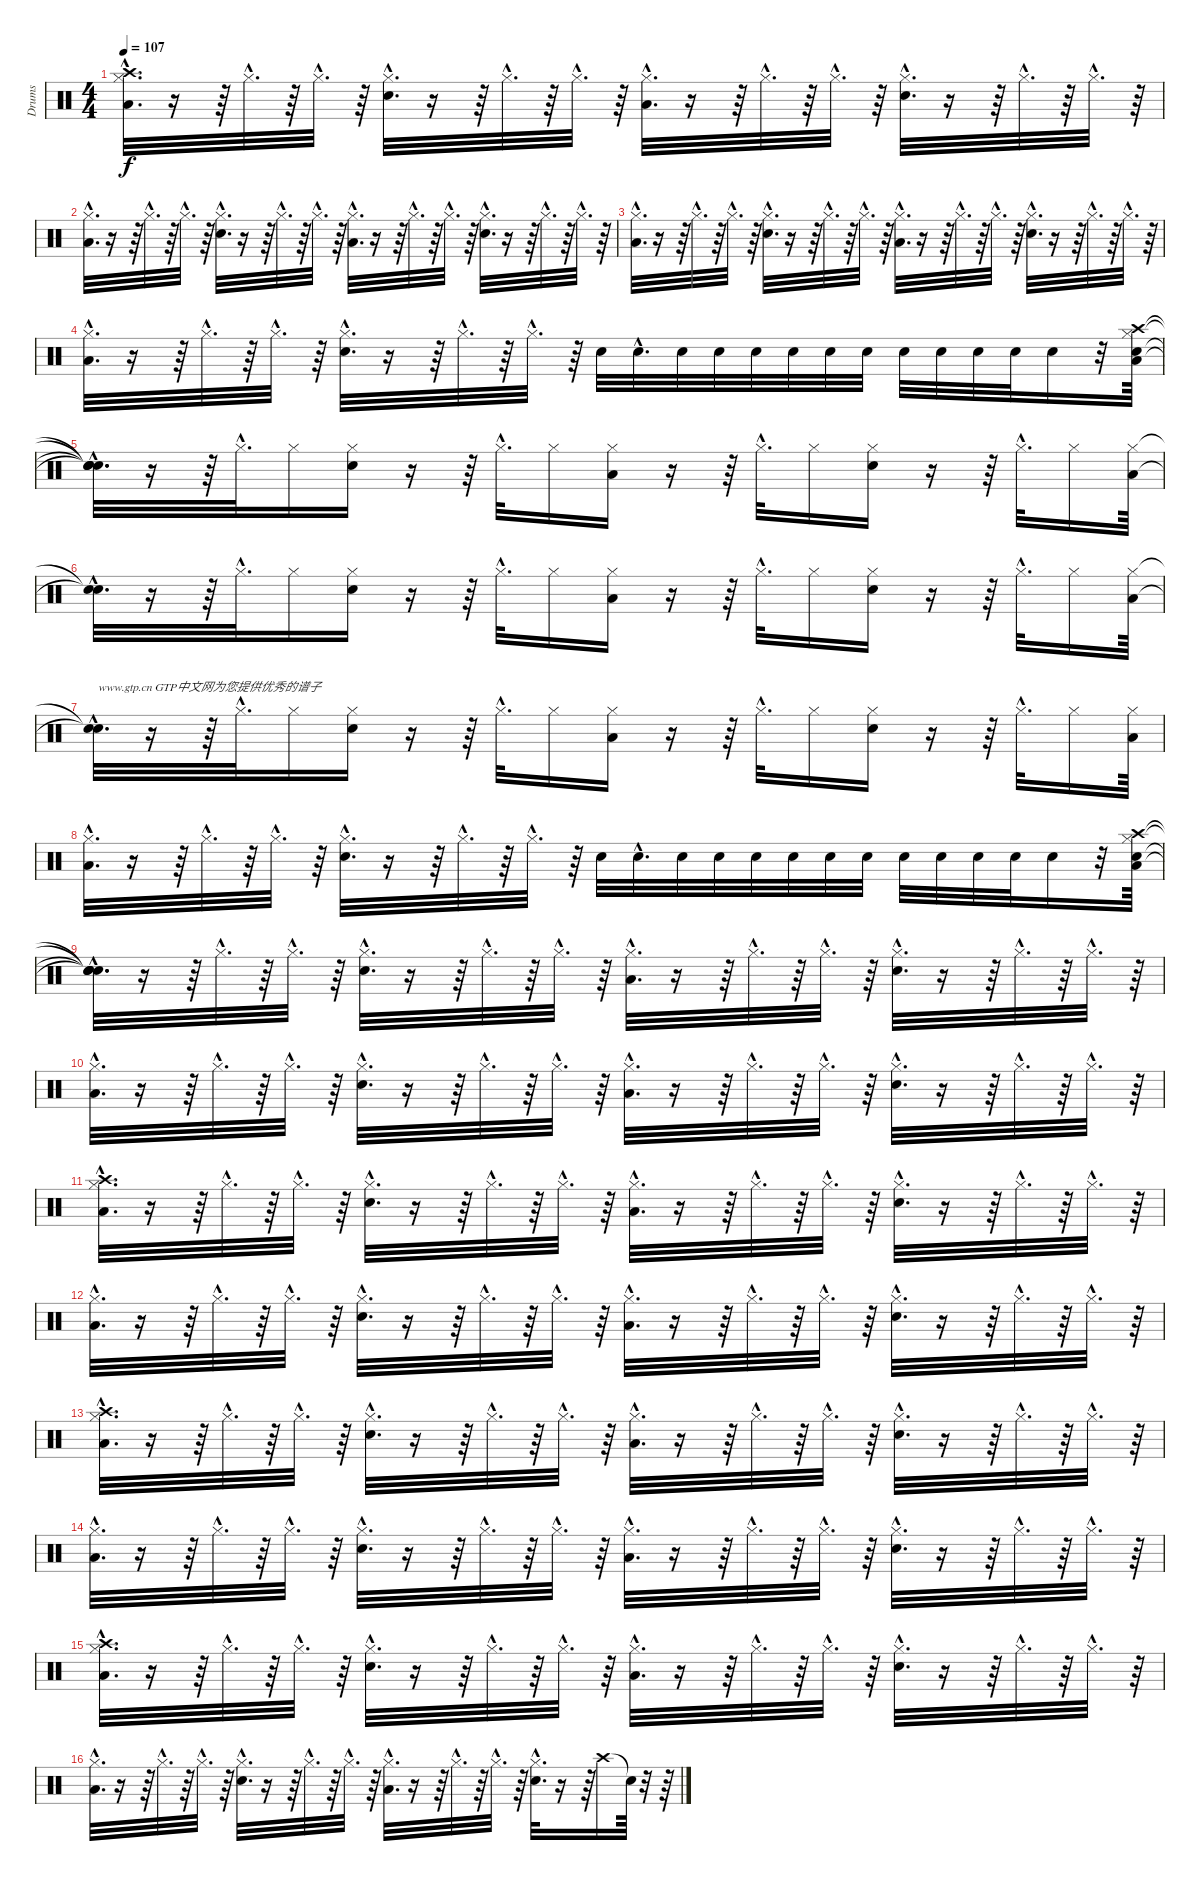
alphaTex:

\track ("Drums" "Drums") {instrument percussion}
\staff {score}
\articulation defaults
\ts (4 4)
\tempo 107
\clef neutral
\ks c
("Hi-Hat (closed)"{hac} "Crash high (hit)"{hac} "Low Tom (hit)"{hac}).32{d dy f} r.16 r.64 "Hi-Hat (closed)"{hac}.32{d} r.64 "Hi-Hat (closed)"{hac}.32{d} r.64 ("Hi-Hat (closed)"{hac} "Snare (hit) 2"{hac}).32{d} r.16 r.64 "Hi-Hat (closed)"{hac}.32{d} r.64 "Hi-Hat (closed)"{hac}.32{d} r.64 ("Hi-Hat (closed)"{hac} "Low Tom (hit)"{hac}).32{d} r.16 r.64 "Hi-Hat (closed)"{hac}.32{d} r.64 "Hi-Hat (closed)"{hac}.32{d} r.64 ("Hi-Hat (closed)"{hac} "Snare (hit) 2"{hac}).32{d} r.16 r.64 "Hi-Hat (closed)"{hac}.32{d} r.64 "Hi-Hat (closed)"{hac}.32{d} r.64 |
("Hi-Hat (closed)"{hac} "Low Tom (hit)"{hac}).32{d} r.16 r.64 "Hi-Hat (closed)"{hac}.32{d} r.64 "Hi-Hat (closed)"{hac}.32{d} r.64 ("Hi-Hat (closed)"{hac} "Snare (hit) 2"{hac}).32{d} r.16 r.64 "Hi-Hat (closed)"{hac}.32{d} r.64 "Hi-Hat (closed)"{hac}.32{d} r.64 ("Hi-Hat (closed)"{hac} "Low Tom (hit)"{hac}).32{d} r.16 r.64 "Hi-Hat (closed)"{hac}.32{d} r.64 "Hi-Hat (closed)"{hac}.32{d} r.64 ("Hi-Hat (closed)"{hac} "Snare (hit) 2"{hac}).32{d} r.16 r.64 "Hi-Hat (closed)"{hac}.32{d} r.64 "Hi-Hat (closed)"{hac}.32{d} r.64 |
("Hi-Hat (closed)"{hac} "Low Tom (hit)"{hac}).32{d} r.16 r.64 "Hi-Hat (closed)"{hac}.32{d} r.64 "Hi-Hat (closed)"{hac}.32{d} r.64 ("Hi-Hat (closed)"{hac} "Snare (hit) 2"{hac}).32{d} r.16 r.64 "Hi-Hat (closed)"{hac}.32{d} r.64 "Hi-Hat (closed)"{hac}.32{d} r.64 ("Hi-Hat (closed)"{hac} "Low Tom (hit)"{hac}).32{d} r.16 r.64 "Hi-Hat (closed)"{hac}.32{d} r.64 "Hi-Hat (closed)"{hac}.32{d} r.64 ("Hi-Hat (closed)"{hac} "Snare (hit) 2"{hac}).32{d} r.16 r.64 "Hi-Hat (closed)"{hac}.32{d} r.64 "Hi-Hat (closed)"{hac}.32{d} r.64 |
("Hi-Hat (closed)"{hac} "Low Tom (hit)"{hac}).32{d} r.16 r.64 "Hi-Hat (closed)"{hac}.32{d} r.64 "Hi-Hat (closed)"{hac}.32{d} r.64 ("Hi-Hat (closed)"{hac} "Snare (hit) 2"{hac}).32{d} r.16 r.64 "Hi-Hat (closed)"{hac}.32{d} r.64 "Hi-Hat (closed)"{hac}.32{d} r.64 "Snare (hit) 2".32 "Snare (hit) 2"{hac}.32{d} "Snare (hit) 2".32 "Snare (hit) 2".32 "Snare (hit) 2".32 "Snare (hit) 2".32 "Snare (hit) 2".32 "Snare (hit) 2".32 "Snare (hit) 2".32 "Snare (hit) 2".32 "Snare (hit) 2".32 "Snare (hit) 2".32 "Snare (hit) 2".16 r.32 ("Hi-Hat (closed)" "Crash high (hit)" "Low Tom (hit)" "Snare (hit) 2").64 |
("Snare (hit)"{hac t} "Snare (hit)"{hac t} "Snare (hit)"{hac t} "Snare (hit)"{hac t}).32{d} r.16 r.64 "Hi-Hat (closed)"{hac}.32{d} "Hi-Hat (closed)".16 ("Hi-Hat (closed)" "Snare (hit) 2").16 r.16 r.64 "Hi-Hat (closed)"{hac}.32{d} "Hi-Hat (closed)".16 ("Hi-Hat (closed)" "Low Tom (hit)").16 r.16 r.64 "Hi-Hat (closed)"{hac}.32{d} "Hi-Hat (closed)".16 ("Hi-Hat (closed)" "Snare (hit) 2").16 r.16 r.64 "Hi-Hat (closed)"{hac}.32{d} "Hi-Hat (closed)".16 ("Hi-Hat (closed)" "Low Tom (hit)").64 |
("Snare (hit)"{hac t} "Snare (hit)"{hac t}).32{d} r.16 r.64 "Hi-Hat (closed)"{hac}.32{d} "Hi-Hat (closed)".16 ("Hi-Hat (closed)" "Snare (hit) 2").16 r.16 r.64 "Hi-Hat (closed)"{hac}.32{d} "Hi-Hat (closed)".16 ("Hi-Hat (closed)" "Low Tom (hit)").16 r.16 r.64 "Hi-Hat (closed)"{hac}.32{d} "Hi-Hat (closed)".16 ("Hi-Hat (closed)" "Snare (hit) 2").16 r.16 r.64 "Hi-Hat (closed)"{hac}.32{d} "Hi-Hat (closed)".16 ("Hi-Hat (closed)" "Low Tom (hit)").64 |
("Snare (hit)"{hac t} "Snare (hit)"{hac t}).32{d txt "www.gtp.cn GTP中文网为您提供优秀的谱子"} r.16 r.64 "Hi-Hat (closed)"{hac}.32{d} "Hi-Hat (closed)".16 ("Hi-Hat (closed)" "Snare (hit) 2").16 r.16 r.64 "Hi-Hat (closed)"{hac}.32{d} "Hi-Hat (closed)".16 ("Hi-Hat (closed)" "Low Tom (hit)").16 r.16 r.64 "Hi-Hat (closed)"{hac}.32{d} "Hi-Hat (closed)".16 ("Hi-Hat (closed)" "Snare (hit) 2").16 r.16 r.64 "Hi-Hat (closed)"{hac}.32{d} "Hi-Hat (closed)".16 ("Hi-Hat (closed)" "Low Tom (hit)").64 |
("Hi-Hat (closed)"{hac} "Low Tom (hit)"{hac}).32{d} r.16 r.64 "Hi-Hat (closed)"{hac}.32{d} r.64 "Hi-Hat (closed)"{hac}.32{d} r.64 ("Hi-Hat (closed)"{hac} "Snare (hit) 2"{hac}).32{d} r.16 r.64 "Hi-Hat (closed)"{hac}.32{d} r.64 "Hi-Hat (closed)"{hac}.32{d} r.64 "Snare (hit) 2".32 "Snare (hit) 2"{hac}.32{d} "Snare (hit) 2".32 "Snare (hit) 2".32 "Snare (hit) 2".32 "Snare (hit) 2".32 "Snare (hit) 2".32 "Snare (hit) 2".32 "Snare (hit) 2".32 "Snare (hit) 2".32 "Snare (hit) 2".32 "Snare (hit) 2".32 "Snare (hit) 2".16 r.32 ("Hi-Hat (closed)" "Crash high (hit)" "Low Tom (hit)" "Snare (hit) 2").64 |
("Snare (hit)"{hac t} "Snare (hit)"{hac t} "Snare (hit)"{hac t} "Snare (hit)"{hac t}).32{d} r.16 r.64 "Hi-Hat (closed)"{hac}.32{d} r.64 "Hi-Hat (closed)"{hac}.32{d} r.64 ("Hi-Hat (closed)"{hac} "Snare (hit) 2"{hac}).32{d} r.16 r.64 "Hi-Hat (closed)"{hac}.32{d} r.64 "Hi-Hat (closed)"{hac}.32{d} r.64 ("Hi-Hat (closed)"{hac} "Low Tom (hit)"{hac}).32{d} r.16 r.64 "Hi-Hat (closed)"{hac}.32{d} r.64 "Hi-Hat (closed)"{hac}.32{d} r.64 ("Hi-Hat (closed)"{hac} "Snare (hit) 2"{hac}).32{d} r.16 r.64 "Hi-Hat (closed)"{hac}.32{d} r.64 "Hi-Hat (closed)"{hac}.32{d} r.64 |
("Hi-Hat (closed)"{hac} "Low Tom (hit)"{hac}).32{d} r.16 r.64 "Hi-Hat (closed)"{hac}.32{d} r.64 "Hi-Hat (closed)"{hac}.32{d} r.64 ("Hi-Hat (closed)"{hac} "Snare (hit) 2"{hac}).32{d} r.16 r.64 "Hi-Hat (closed)"{hac}.32{d} r.64 "Hi-Hat (closed)"{hac}.32{d} r.64 ("Hi-Hat (closed)"{hac} "Low Tom (hit)"{hac}).32{d} r.16 r.64 "Hi-Hat (closed)"{hac}.32{d} r.64 "Hi-Hat (closed)"{hac}.32{d} r.64 ("Hi-Hat (closed)"{hac} "Snare (hit) 2"{hac}).32{d} r.16 r.64 "Hi-Hat (closed)"{hac}.32{d} r.64 "Hi-Hat (closed)"{hac}.32{d} r.64 |
("Hi-Hat (closed)"{hac} "Crash high (hit)"{hac} "Low Tom (hit)"{hac}).32{d} r.16 r.64 "Hi-Hat (closed)"{hac}.32{d} r.64 "Hi-Hat (closed)"{hac}.32{d} r.64 ("Hi-Hat (closed)"{hac} "Snare (hit) 2"{hac}).32{d} r.16 r.64 "Hi-Hat (closed)"{hac}.32{d} r.64 "Hi-Hat (closed)"{hac}.32{d} r.64 ("Hi-Hat (closed)"{hac} "Low Tom (hit)"{hac}).32{d} r.16 r.64 "Hi-Hat (closed)"{hac}.32{d} r.64 "Hi-Hat (closed)"{hac}.32{d} r.64 ("Hi-Hat (closed)"{hac} "Snare (hit) 2"{hac}).32{d} r.16 r.64 "Hi-Hat (closed)"{hac}.32{d} r.64 "Hi-Hat (closed)"{hac}.32{d} r.64 |
("Hi-Hat (closed)"{hac} "Low Tom (hit)"{hac}).32{d} r.16 r.64 "Hi-Hat (closed)"{hac}.32{d} r.64 "Hi-Hat (closed)"{hac}.32{d} r.64 ("Hi-Hat (closed)"{hac} "Snare (hit) 2"{hac}).32{d} r.16 r.64 "Hi-Hat (closed)"{hac}.32{d} r.64 "Hi-Hat (closed)"{hac}.32{d} r.64 ("Hi-Hat (closed)"{hac} "Low Tom (hit)"{hac}).32{d} r.16 r.64 "Hi-Hat (closed)"{hac}.32{d} r.64 "Hi-Hat (closed)"{hac}.32{d} r.64 ("Hi-Hat (closed)"{hac} "Snare (hit) 2"{hac}).32{d} r.16 r.64 "Hi-Hat (closed)"{hac}.32{d} r.64 "Hi-Hat (closed)"{hac}.32{d} r.64 |
("Hi-Hat (closed)"{hac} "Crash high (hit)"{hac} "Low Tom (hit)"{hac}).32{d} r.16 r.64 "Hi-Hat (closed)"{hac}.32{d} r.64 "Hi-Hat (closed)"{hac}.32{d} r.64 ("Hi-Hat (closed)"{hac} "Snare (hit) 2"{hac}).32{d} r.16 r.64 "Hi-Hat (closed)"{hac}.32{d} r.64 "Hi-Hat (closed)"{hac}.32{d} r.64 ("Hi-Hat (closed)"{hac} "Low Tom (hit)"{hac}).32{d} r.16 r.64 "Hi-Hat (closed)"{hac}.32{d} r.64 "Hi-Hat (closed)"{hac}.32{d} r.64 ("Hi-Hat (closed)"{hac} "Snare (hit) 2"{hac}).32{d} r.16 r.64 "Hi-Hat (closed)"{hac}.32{d} r.64 "Hi-Hat (closed)"{hac}.32{d} r.64 |
("Hi-Hat (closed)"{hac} "Low Tom (hit)"{hac}).32{d} r.16 r.64 "Hi-Hat (closed)"{hac}.32{d} r.64 "Hi-Hat (closed)"{hac}.32{d} r.64 ("Hi-Hat (closed)"{hac} "Snare (hit) 2"{hac}).32{d} r.16 r.64 "Hi-Hat (closed)"{hac}.32{d} r.64 "Hi-Hat (closed)"{hac}.32{d} r.64 ("Hi-Hat (closed)"{hac} "Low Tom (hit)"{hac}).32{d} r.16 r.64 "Hi-Hat (closed)"{hac}.32{d} r.64 "Hi-Hat (closed)"{hac}.32{d} r.64 ("Hi-Hat (closed)"{hac} "Snare (hit) 2"{hac}).32{d} r.16 r.64 "Hi-Hat (closed)"{hac}.32{d} r.64 "Hi-Hat (closed)"{hac}.32{d} r.64 |
("Hi-Hat (closed)"{hac} "Crash high (hit)"{hac} "Low Tom (hit)"{hac}).32{d} r.16 r.64 "Hi-Hat (closed)"{hac}.32{d} r.64 "Hi-Hat (closed)"{hac}.32{d} r.64 ("Hi-Hat (closed)"{hac} "Snare (hit) 2"{hac}).32{d} r.16 r.64 "Hi-Hat (closed)"{hac}.32{d} r.64 "Hi-Hat (closed)"{hac}.32{d} r.64 ("Hi-Hat (closed)"{hac} "Low Tom (hit)"{hac}).32{d} r.16 r.64 "Hi-Hat (closed)"{hac}.32{d} r.64 "Hi-Hat (closed)"{hac}.32{d} r.64 ("Hi-Hat (closed)"{hac} "Snare (hit) 2"{hac}).32{d} r.16 r.64 "Hi-Hat (closed)"{hac}.32{d} r.64 "Hi-Hat (closed)"{hac}.32{d} r.64 |
("Hi-Hat (closed)"{hac} "Low Tom (hit)"{hac}).32{d} r.16 r.64 "Hi-Hat (closed)"{hac}.32{d} r.64 "Hi-Hat (closed)"{hac}.32{d} r.64 ("Hi-Hat (closed)"{hac} "Snare (hit) 2"{hac}).32{d} r.16 r.64 "Hi-Hat (closed)"{hac}.32{d} r.64 "Hi-Hat (closed)"{hac}.32{d} r.64 ("Hi-Hat (closed)"{hac} "Low Tom (hit)"{hac}).32{d} r.16 r.64 "Hi-Hat (closed)"{hac}.32{d} r.64 "Hi-Hat (closed)"{hac}.32{d} r.64 ("Hi-Hat (closed)"{hac} "Snare (hit) 2"{hac}).32{d} r.16 r.64 "Crash high (hit)".16 "Snare (hit)"{t}.64 r.32 r.64
